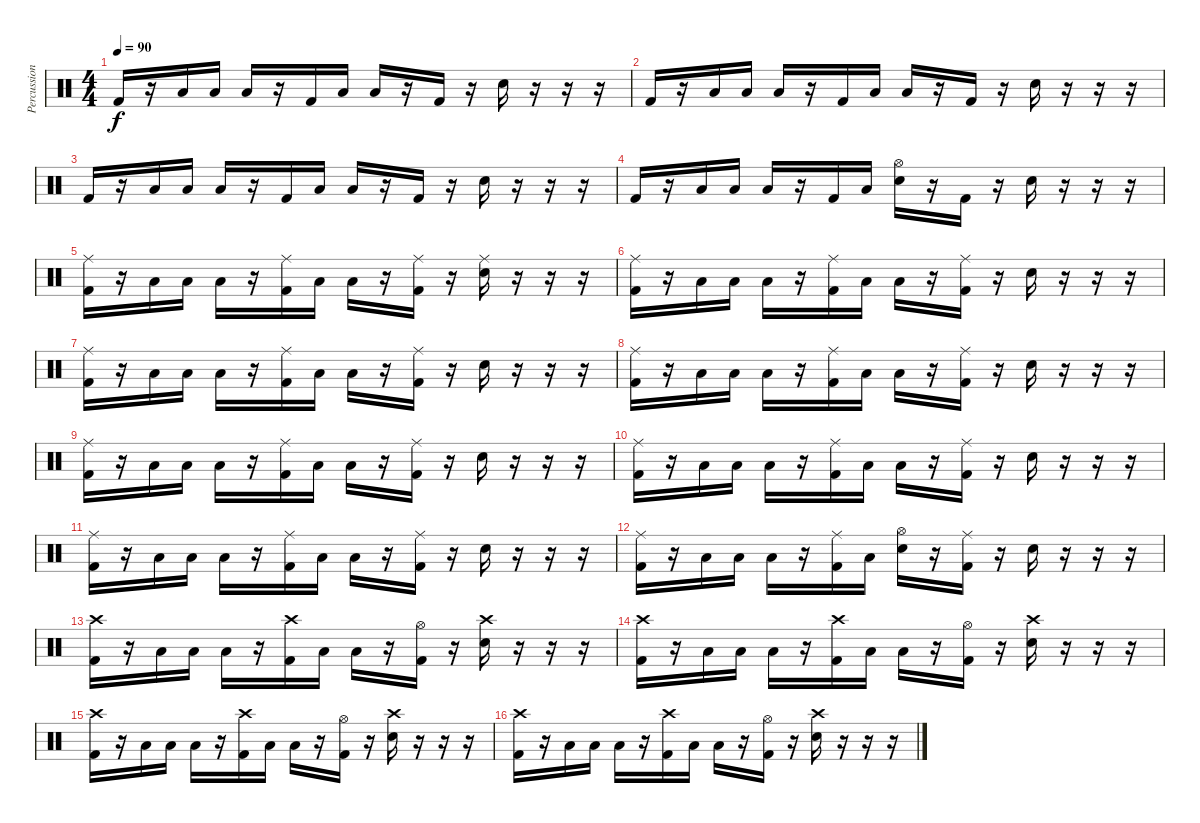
\track ("Percussion" "Percussion") {instrument percussion}
\staff {score}
\articulation defaults
\ts (4 4)
\tempo 90
\clef neutral
\ks c "Kick (hit) 2".16{dy f}
r.16 "Low Floor Tom (hit)".16 "Low Floor Tom (hit)".16 "Low Floor Tom (hit)".16 r.16 "Kick (hit) 2".16 "Low Floor Tom (hit)".16 "Low Floor Tom (hit)".16 r.16 "Kick (hit) 2".16 r.16 "Snare (hit) 2".16 r.16 r.16 r.16 |
"Kick (hit) 2".16 r.16 "Low Floor Tom (hit)".16 "Low Floor Tom (hit)".16 "Low Floor Tom (hit)".16 r.16 "Kick (hit) 2".16 "Low Floor Tom (hit)".16 "Low Floor Tom (hit)".16 r.16 "Kick (hit) 2".16 r.16 "Snare (hit) 2".16 r.16 r.16 r.16 |
"Kick (hit) 2".16 r.16 "Low Floor Tom (hit)".16 "Low Floor Tom (hit)".16 "Low Floor Tom (hit)".16 r.16 "Kick (hit) 2".16 "Low Floor Tom (hit)".16 "Low Floor Tom (hit)".16 r.16 "Kick (hit) 2".16 r.16 "Snare (hit) 2".16 r.16 r.16 r.16 |
"Kick (hit) 2".16 r.16 "Low Floor Tom (hit)".16 "Low Floor Tom (hit)".16 "Low Floor Tom (hit)".16 r.16 "Kick (hit) 2".16 "Low Floor Tom (hit)".16 ("Hi-Hat (open)" "Snare (hit) 2").16 r.16 "Kick (hit) 2".16 r.16 "Snare (hit) 2".16 r.16 r.16 r.16 |
("Ride (middle)" "Kick (hit) 2").16 r.16 "Low Floor Tom (hit)".16 "Low Floor Tom (hit)".16 "Low Floor Tom (hit)".16 r.16 ("Ride (middle)" "Kick (hit) 2").16 "Low Floor Tom (hit)".16 "Low Floor Tom (hit)".16 r.16 ("Ride (middle)" "Kick (hit) 2").16 r.16 ("Ride (middle)" "Snare (hit) 2").16 r.16 r.16 r.16 |
("Ride (middle)" "Kick (hit) 2").16 r.16 "Low Floor Tom (hit)".16 "Low Floor Tom (hit)".16 "Low Floor Tom (hit)".16 r.16 ("Ride (middle)" "Kick (hit) 2").16 "Low Floor Tom (hit)".16 "Low Floor Tom (hit)".16 r.16 ("Ride (middle)" "Kick (hit) 2").16 r.16 "Snare (hit) 2".16 r.16 r.16 r.16 |
("Ride (middle)" "Kick (hit) 2").16 r.16 "Low Floor Tom (hit)".16 "Low Floor Tom (hit)".16 "Low Floor Tom (hit)".16 r.16 ("Ride (middle)" "Kick (hit) 2").16 "Low Floor Tom (hit)".16 "Low Floor Tom (hit)".16 r.16 ("Ride (middle)" "Kick (hit) 2").16 r.16 "Snare (hit) 2".16 r.16 r.16 r.16 |
("Ride (middle)" "Kick (hit) 2").16 r.16 "Low Floor Tom (hit)".16 "Low Floor Tom (hit)".16 "Low Floor Tom (hit)".16 r.16 ("Ride (middle)" "Kick (hit) 2").16 "Low Floor Tom (hit)".16 "Low Floor Tom (hit)".16 r.16 ("Ride (middle)" "Kick (hit) 2").16 r.16 "Snare (hit) 2".16 r.16 r.16 r.16 |
("Ride (middle)" "Kick (hit) 2").16 r.16 "Low Floor Tom (hit)".16 "Low Floor Tom (hit)".16 "Low Floor Tom (hit)".16 r.16 ("Ride (middle)" "Kick (hit) 2").16 "Low Floor Tom (hit)".16 "Low Floor Tom (hit)".16 r.16 ("Ride (middle)" "Kick (hit) 2").16 r.16 "Snare (hit) 2".16 r.16 r.16 r.16 |
("Ride (middle)" "Kick (hit) 2").16 r.16 "Low Floor Tom (hit)".16 "Low Floor Tom (hit)".16 "Low Floor Tom (hit)".16 r.16 ("Ride (middle)" "Kick (hit) 2").16 "Low Floor Tom (hit)".16 "Low Floor Tom (hit)".16 r.16 ("Ride (middle)" "Kick (hit) 2").16 r.16 "Snare (hit) 2".16 r.16 r.16 r.16 |
("Ride (middle)" "Kick (hit) 2").16 r.16 "Low Floor Tom (hit)".16 "Low Floor Tom (hit)".16 "Low Floor Tom (hit)".16 r.16 ("Ride (middle)" "Kick (hit) 2").16 "Low Floor Tom (hit)".16 "Low Floor Tom (hit)".16 r.16 ("Ride (middle)" "Kick (hit) 2").16 r.16 "Snare (hit) 2".16 r.16 r.16 r.16 |
("Ride (middle)" "Kick (hit) 2").16 r.16 "Low Floor Tom (hit)".16 "Low Floor Tom (hit)".16 "Low Floor Tom (hit)".16 r.16 ("Ride (middle)" "Kick (hit) 2").16 "Low Floor Tom (hit)".16 ("Hi-Hat (open)" "Snare (hit) 2").16 r.16 ("Ride (middle)" "Kick (hit) 2").16 r.16 "Snare (hit) 2".16 r.16 r.16 r.16 |
("Crash high (hit)" "Kick (hit) 2").16 r.16 "Low Floor Tom (hit)".16 "Low Floor Tom (hit)".16 "Low Floor Tom (hit)".16 r.16 ("Crash high (hit)" "Kick (hit) 2").16 "Low Floor Tom (hit)".16 "Low Floor Tom (hit)".16 r.16 ("Hi-Hat (open)" "Kick (hit) 2").16 r.16 ("Crash high (hit)" "Snare (hit) 2").16 r.16 r.16 r.16 |
("Crash high (hit)" "Kick (hit) 2").16 r.16 "Low Floor Tom (hit)".16 "Low Floor Tom (hit)".16 "Low Floor Tom (hit)".16 r.16 ("Crash high (hit)" "Kick (hit) 2").16 "Low Floor Tom (hit)".16 "Low Floor Tom (hit)".16 r.16 ("Hi-Hat (open)" "Kick (hit) 2").16 r.16 ("Crash high (hit)" "Snare (hit) 2").16 r.16 r.16 r.16 |
("Crash high (hit)" "Kick (hit) 2").16 r.16 "Low Floor Tom (hit)".16 "Low Floor Tom (hit)".16 "Low Floor Tom (hit)".16 r.16 ("Crash high (hit)" "Kick (hit) 2").16 "Low Floor Tom (hit)".16 "Low Floor Tom (hit)".16 r.16 ("Hi-Hat (open)" "Kick (hit) 2").16 r.16 ("Crash high (hit)" "Snare (hit) 2").16 r.16 r.16 r.16 |
("Crash high (hit)" "Kick (hit) 2").16 r.16 "Low Floor Tom (hit)".16 "Low Floor Tom (hit)".16 "Low Floor Tom (hit)".16 r.16 ("Crash high (hit)" "Kick (hit) 2").16 "Low Floor Tom (hit)".16 "Low Floor Tom (hit)".16 r.16 ("Hi-Hat (open)" "Kick (hit) 2").16 r.16 ("Crash high (hit)" "Snare (hit) 2").16 r.16 r.16 r.16
